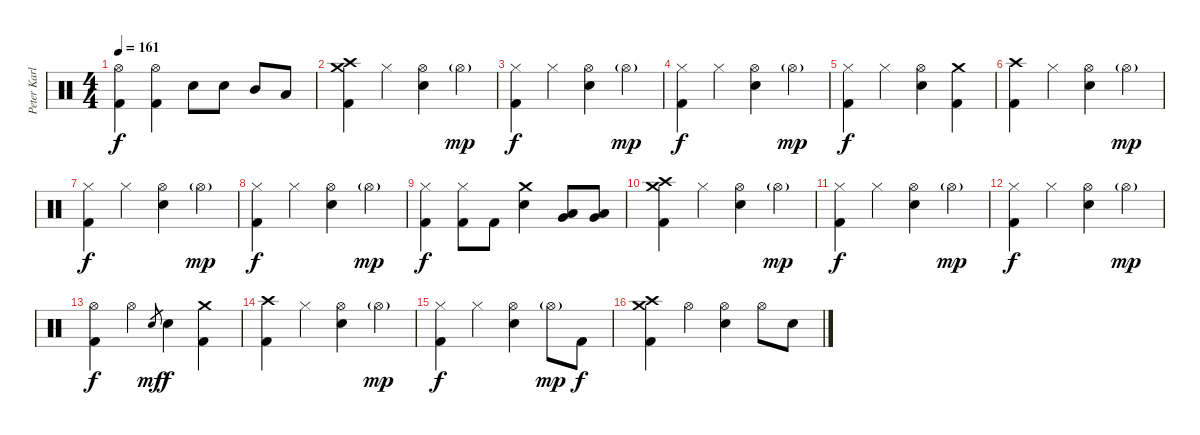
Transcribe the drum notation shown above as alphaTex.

\track ("Peter Karlsson" "Peter Karl") {instrument percussion}
\staff {score}
\articulation defaults
\ts (4 4)
\tempo 161
\clef neutral
\ks c
("Hi-Hat (open)" "Kick (hit) 2").4{dy f} ("Hi-Hat (open)" "Kick (hit) 2").4 "Snare (hit) 2".8 "Snare (hit) 2".8 "Mid Tom (hit)".8 "Low Tom (hit)".8 |
("Crash high (hit)" "Crash medium (hit)" "Kick (hit) 2").4 "Hi-Hat (closed)".4 ("Hi-Hat (open)" "Snare (hit) 2").4 "Hi-Hat (open)"{g}.4{dy mp} |
("Hi-Hat (closed)" "Kick (hit) 2").4{dy f} "Hi-Hat (closed)".4 ("Hi-Hat (open)" "Snare (hit) 2").4 "Hi-Hat (open)"{g}.4{dy mp} |
("Hi-Hat (closed)" "Kick (hit) 2").4{dy f} "Hi-Hat (closed)".4 ("Hi-Hat (open)" "Snare (hit) 2").4 "Hi-Hat (open)"{g}.4{dy mp} |
("Hi-Hat (closed)" "Kick (hit) 2").4{dy f} "Hi-Hat (closed)".4 ("Hi-Hat (open)" "Snare (hit) 2").4 ("Crash medium (hit)" "Kick (hit) 2").4 |
("Crash high (hit)" "Kick (hit) 2").4 "Hi-Hat (closed)".4 ("Hi-Hat (open)" "Snare (hit) 2").4 "Hi-Hat (open)"{g}.4{dy mp} |
("Hi-Hat (closed)" "Kick (hit) 2").4{dy f} "Hi-Hat (closed)".4 ("Hi-Hat (open)" "Snare (hit) 2").4 "Hi-Hat (open)"{g}.4{dy mp} |
("Hi-Hat (closed)" "Kick (hit) 2").4{dy f} "Hi-Hat (closed)".4 ("Hi-Hat (open)" "Snare (hit) 2").4 "Hi-Hat (open)"{g}.4{dy mp} |
("Hi-Hat (closed)" "Kick (hit) 2").4{dy f} ("Hi-Hat (closed)" "Kick (hit) 2").8 "Kick (hit) 2".8 ("Crash medium (hit)" "Snare (hit) 2").4 ("Very Low Tom (hit)" "Low Floor Tom (hit)").8 ("Very Low Tom (hit)" "Low Floor Tom (hit)").8 |
("Crash high (hit)" "Crash medium (hit)" "Kick (hit) 2").4 "Hi-Hat (closed)".4 ("Hi-Hat (open)" "Snare (hit) 2").4 "Hi-Hat (open)"{g}.4{dy mp} |
("Hi-Hat (closed)" "Kick (hit) 2").4{dy f} "Hi-Hat (closed)".4 ("Hi-Hat (open)" "Snare (hit) 2").4 "Hi-Hat (open)"{g}.4{dy mp} |
("Hi-Hat (closed)" "Kick (hit) 2").4{dy f} "Hi-Hat (closed)".4 ("Hi-Hat (open)" "Snare (hit) 2").4 "Hi-Hat (open)"{g}.4{dy mp} |
("Hi-Hat (open)" "Kick (hit) 2").4{dy f} "Hi-Hat (open)".4 "Snare (hit) 2".8{gr dy mf} "Snare (hit) 2".4{dy f} ("Crash medium (hit)" "Kick (hit) 2").4 |
("Crash high (hit)" "Kick (hit) 2").4 "Hi-Hat (closed)".4 ("Hi-Hat (open)" "Snare (hit) 2").4 "Hi-Hat (open)"{g}.4{dy mp} |
("Hi-Hat (closed)" "Kick (hit) 2").4{dy f} "Hi-Hat (closed)".4 ("Hi-Hat (open)" "Snare (hit) 2").4 "Hi-Hat (open)"{g}.8{dy mp} "Kick (hit) 2".8{dy f} |
("Crash high (hit)" "Crash medium (hit)" "Kick (hit) 2").4 "Hi-Hat (open)".4 ("Hi-Hat (open)" "Snare (hit) 2").4 "Hi-Hat (open)".8 "Snare (hit) 2".8
